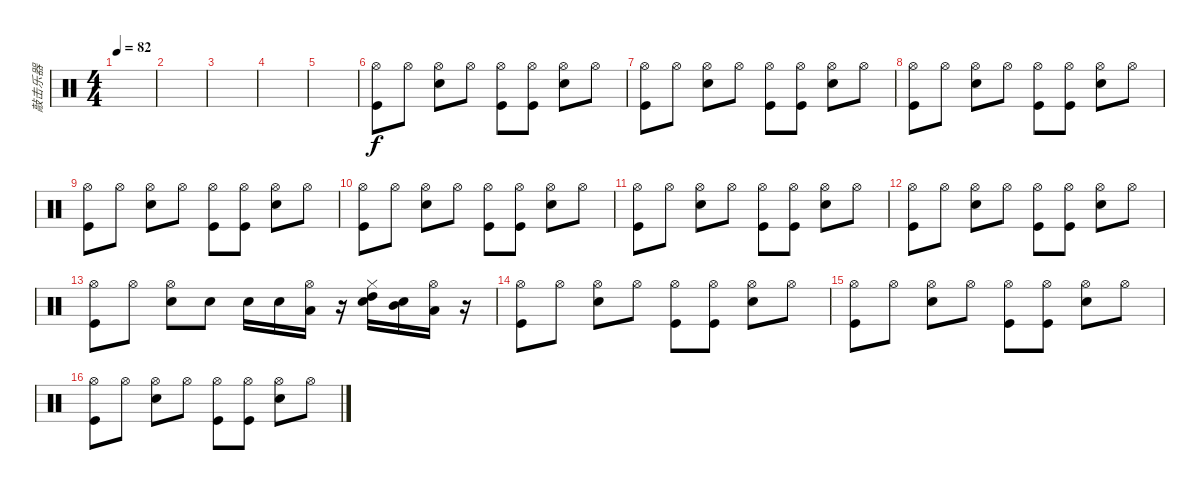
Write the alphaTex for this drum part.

\track ("敲击乐器" "敲击乐器") {instrument percussion}
\staff {score}
\articulation defaults
\ts (4 4)
\tempo 82
\clef neutral
\ks c
|
|
|
|
|
("Hi-Hat (open)" "Kick (hit)").8 "Hi-Hat (open)".8 ("Hi-Hat (open)" "Snare (hit) 2").8 "Hi-Hat (open)".8 ("Hi-Hat (open)" "Kick (hit)").8 ("Hi-Hat (open)" "Kick (hit)").8 ("Hi-Hat (open)" "Snare (hit) 2").8 "Hi-Hat (open)".8 |
("Hi-Hat (open)" "Kick (hit)").8 "Hi-Hat (open)".8 ("Hi-Hat (open)" "Snare (hit) 2").8 "Hi-Hat (open)".8 ("Hi-Hat (open)" "Kick (hit)").8 ("Hi-Hat (open)" "Kick (hit)").8 ("Hi-Hat (open)" "Snare (hit) 2").8 "Hi-Hat (open)".8 |
("Hi-Hat (open)" "Kick (hit)").8 "Hi-Hat (open)".8 ("Hi-Hat (open)" "Snare (hit) 2").8 "Hi-Hat (open)".8 ("Hi-Hat (open)" "Kick (hit)").8 ("Hi-Hat (open)" "Kick (hit)").8 ("Hi-Hat (open)" "Snare (hit) 2").8 "Hi-Hat (open)".8 |
("Hi-Hat (open)" "Kick (hit)").8 "Hi-Hat (open)".8 ("Hi-Hat (open)" "Snare (hit) 2").8 "Hi-Hat (open)".8 ("Hi-Hat (open)" "Kick (hit)").8 ("Hi-Hat (open)" "Kick (hit)").8 ("Hi-Hat (open)" "Snare (hit) 2").8 "Hi-Hat (open)".8 |
("Hi-Hat (open)" "Kick (hit)").8 "Hi-Hat (open)".8 ("Hi-Hat (open)" "Snare (hit) 2").8 "Hi-Hat (open)".8 ("Hi-Hat (open)" "Kick (hit)").8 ("Hi-Hat (open)" "Kick (hit)").8 ("Hi-Hat (open)" "Snare (hit) 2").8 "Hi-Hat (open)".8 |
("Hi-Hat (open)" "Kick (hit)").8 "Hi-Hat (open)".8 ("Hi-Hat (open)" "Snare (hit) 2").8 "Hi-Hat (open)".8 ("Hi-Hat (open)" "Kick (hit)").8 ("Hi-Hat (open)" "Kick (hit)").8 ("Hi-Hat (open)" "Snare (hit) 2").8 "Hi-Hat (open)".8 |
("Hi-Hat (open)" "Kick (hit)").8 "Hi-Hat (open)".8 ("Hi-Hat (open)" "Snare (hit) 2").8 "Hi-Hat (open)".8 ("Hi-Hat (open)" "Kick (hit)").8 ("Hi-Hat (open)" "Kick (hit)").8 ("Hi-Hat (open)" "Snare (hit) 2").8 "Hi-Hat (open)".8 |
("Hi-Hat (open)" "Kick (hit)").8 "Hi-Hat (open)".8 ("Hi-Hat (open)" "Snare (hit) 2").8 "Snare (hit) 2".8 "Snare (hit) 2".16 "Snare (hit) 2".16 ("Hi-Hat (open)" "Low Tom (hit)").16 r.16 ("Hi-Hat (closed)" "High Tom (hit)" "Snare (hit) 2").16 ("Mid Tom (hit)" "Snare (hit) 2").16 ("Hi-Hat (open)" "Low Tom (hit)").16 r.16 |
("Hi-Hat (open)" "Kick (hit)").8 "Hi-Hat (open)".8 ("Hi-Hat (open)" "Snare (hit) 2").8 "Hi-Hat (open)".8 ("Hi-Hat (open)" "Kick (hit)").8 ("Hi-Hat (open)" "Kick (hit)").8 ("Hi-Hat (open)" "Snare (hit) 2").8 "Hi-Hat (open)".8 |
("Hi-Hat (open)" "Kick (hit)").8 "Hi-Hat (open)".8 ("Hi-Hat (open)" "Snare (hit) 2").8 "Hi-Hat (open)".8 ("Hi-Hat (open)" "Kick (hit)").8 ("Hi-Hat (open)" "Kick (hit)").8 ("Hi-Hat (open)" "Snare (hit) 2").8 "Hi-Hat (open)".8 |
("Hi-Hat (open)" "Kick (hit)").8 "Hi-Hat (open)".8 ("Hi-Hat (open)" "Snare (hit) 2").8 "Hi-Hat (open)".8 ("Hi-Hat (open)" "Kick (hit)").8 ("Hi-Hat (open)" "Kick (hit)").8 ("Hi-Hat (open)" "Snare (hit) 2").8 "Hi-Hat (open)".8
